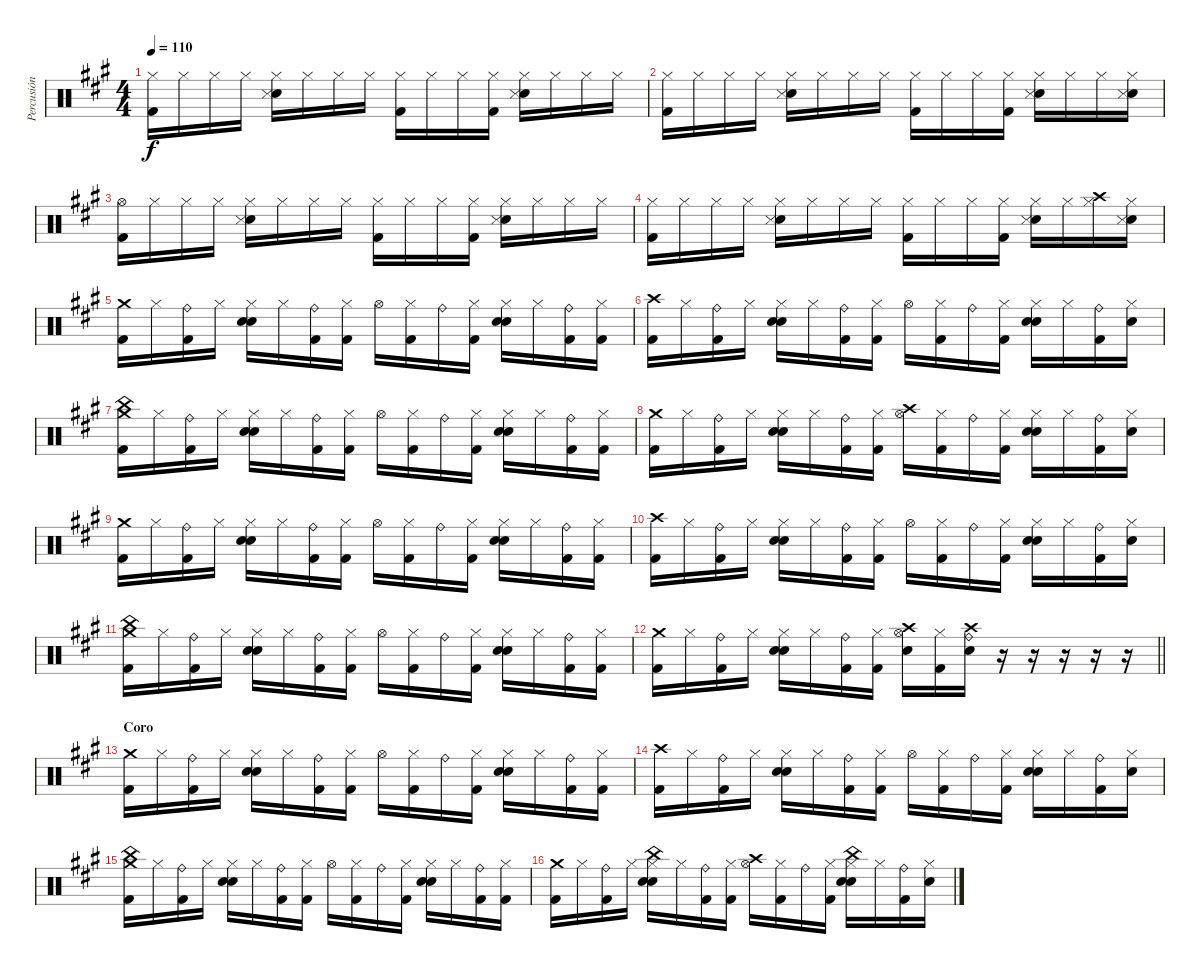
\track ("Percusión" "Percusión") {instrument percussion}
\staff {score}
\articulation defaults
\ts (4 4)
\tempo 110
\clef neutral
\ks a
("Hi-Hat (closed)" "Kick (hit) 2").16{dy f} "Hi-Hat (closed)".16 "Hi-Hat (closed)".16 "Hi-Hat (closed)".16 ("Hi-Hat (closed)" "Hand Clap (hit)" "Snare (side stick) 3").16 "Hi-Hat (closed)".16 "Hi-Hat (closed)".16 "Hi-Hat (closed)".16 ("Hi-Hat (closed)" "Kick (hit) 2").16 "Hi-Hat (closed)".16 "Hi-Hat (closed)".16 ("Hi-Hat (closed)" "Kick (hit) 2").16 ("Hi-Hat (closed)" "Hand Clap (hit)" "Snare (side stick) 3").16 "Hi-Hat (closed)".16 "Hi-Hat (closed)".16 "Hi-Hat (closed)".16 |
("Hi-Hat (closed)" "Kick (hit) 2").16 "Hi-Hat (closed)".16 "Hi-Hat (closed)".16 "Hi-Hat (closed)".16 ("Hi-Hat (closed)" "Hand Clap (hit)" "Snare (side stick) 3").16 "Hi-Hat (closed)".16 "Hi-Hat (closed)".16 "Hi-Hat (closed)".16 ("Hi-Hat (closed)" "Kick (hit) 2").16 "Hi-Hat (closed)".16 "Hi-Hat (closed)".16 ("Hi-Hat (closed)" "Kick (hit) 2").16 ("Hi-Hat (closed)" "Hand Clap (hit)" "Snare (side stick) 3").16 "Hi-Hat (closed)".16 "Hi-Hat (closed)".16 ("Hi-Hat (closed)" "Hand Clap (hit)" "Snare (side stick) 3").16 |
("Hi-Hat (open)" "Kick (hit) 2").16 "Hi-Hat (closed)".16 "Hi-Hat (closed)".16 "Hi-Hat (closed)".16 ("Hi-Hat (closed)" "Hand Clap (hit)" "Snare (side stick) 3").16 "Hi-Hat (closed)".16 "Hi-Hat (closed)".16 "Hi-Hat (closed)".16 ("Hi-Hat (closed)" "Kick (hit) 2").16 "Hi-Hat (closed)".16 "Hi-Hat (closed)".16 ("Hi-Hat (closed)" "Kick (hit) 2").16 ("Hi-Hat (closed)" "Hand Clap (hit)" "Snare (side stick) 3").16 "Hi-Hat (closed)".16 "Hi-Hat (closed)".16 "Hi-Hat (closed)".16 |
("Hi-Hat (closed)" "Kick (hit) 2").16 "Hi-Hat (closed)".16 "Hi-Hat (closed)".16 "Hi-Hat (closed)".16 ("Hi-Hat (closed)" "Hand Clap (hit)" "Snare (side stick) 3").16 "Hi-Hat (closed)".16 "Hi-Hat (closed)".16 "Hi-Hat (closed)".16 ("Hi-Hat (closed)" "Kick (hit) 2").16 "Hi-Hat (closed)".16 "Hi-Hat (closed)".16 ("Hi-Hat (closed)" "Kick (hit) 2").16 ("Hi-Hat (closed)" "Hand Clap (hit)" "Snare (side stick) 3").16 "Hi-Hat (closed)".16 ("Crash high (hit)" "Hi-Hat (closed)").16 ("Hi-Hat (closed)" "Hand Clap (hit)" "Snare (side stick) 3").16 |
("Crash medium (hit)" "Kick (hit) 2").16 "Hi-Hat (closed)".16 ("Ride (bell)" "Kick (hit) 2").16 "Hi-Hat (closed)".16 ("Hi-Hat (closed)" "Hand Clap (hit)" "Electric Snare (hit)").16 "Hi-Hat (closed)".16 ("Ride (bell)" "Kick (hit) 2").16 ("Hi-Hat (closed)" "Kick (hit) 2").16 "Hi-Hat (open)".16 ("Hi-Hat (closed)" "Kick (hit) 2").16 "Ride (bell)".16 ("Hi-Hat (closed)" "Kick (hit) 2").16 ("Hi-Hat (closed)" "Hand Clap (hit)" "Electric Snare (hit)").16 "Hi-Hat (closed)".16 ("Ride (bell)" "Kick (hit) 2").16 ("Hi-Hat (closed)" "Kick (hit) 2").16 |
("Crash high (hit)" "Kick (hit) 2").16 "Hi-Hat (closed)".16 ("Ride (bell)" "Kick (hit) 2").16 "Hi-Hat (closed)".16 ("Hi-Hat (closed)" "Hand Clap (hit)" "Electric Snare (hit)").16 "Hi-Hat (closed)".16 ("Ride (bell)" "Kick (hit) 2").16 ("Hi-Hat (closed)" "Kick (hit) 2").16 "Hi-Hat (open)".16 ("Hi-Hat (closed)" "Kick (hit) 2").16 "Ride (bell)".16 ("Hi-Hat (closed)" "Kick (hit) 2").16 ("Hi-Hat (closed)" "Hand Clap (hit)" "Electric Snare (hit)").16 "Hi-Hat (closed)".16 ("Ride (bell)" "Kick (hit) 2").16 ("Hi-Hat (closed)" "Hand Clap (hit)").16 |
("Crash medium (hit)" "China (hit)" "Kick (hit) 2").16 "Hi-Hat (closed)".16 ("Ride (bell)" "Kick (hit) 2").16 "Hi-Hat (closed)".16 ("Hi-Hat (closed)" "Hand Clap (hit)" "Electric Snare (hit)").16 "Hi-Hat (closed)".16 ("Ride (bell)" "Kick (hit) 2").16 ("Hi-Hat (closed)" "Kick (hit) 2").16 "Hi-Hat (open)".16 ("Hi-Hat (closed)" "Kick (hit) 2").16 "Ride (bell)".16 ("Hi-Hat (closed)" "Kick (hit) 2").16 ("Hi-Hat (closed)" "Hand Clap (hit)" "Electric Snare (hit)").16 "Hi-Hat (closed)".16 ("Ride (bell)" "Kick (hit) 2").16 ("Hi-Hat (closed)" "Kick (hit) 2").16 |
("Crash medium (hit)" "Kick (hit) 2").16 "Hi-Hat (closed)".16 ("Ride (bell)" "Kick (hit) 2").16 "Hi-Hat (closed)".16 ("Hi-Hat (closed)" "Hand Clap (hit)" "Electric Snare (hit)").16 "Hi-Hat (closed)".16 ("Ride (bell)" "Kick (hit) 2").16 ("Hi-Hat (closed)" "Kick (hit) 2").16 ("Crash high (hit)" "Hi-Hat (open)").16 ("Hi-Hat (closed)" "Kick (hit) 2").16 "Ride (bell)".16 ("Hi-Hat (closed)" "Kick (hit) 2").16 ("Hi-Hat (closed)" "Hand Clap (hit)" "Electric Snare (hit)").16 "Hi-Hat (closed)".16 ("Ride (bell)" "Kick (hit) 2").16 ("Hi-Hat (closed)" "Hand Clap (hit)").16 |
("Crash medium (hit)" "Kick (hit) 2").16 "Hi-Hat (closed)".16 ("Ride (bell)" "Kick (hit) 2").16 "Hi-Hat (closed)".16 ("Hi-Hat (closed)" "Hand Clap (hit)" "Electric Snare (hit)").16 "Hi-Hat (closed)".16 ("Ride (bell)" "Kick (hit) 2").16 ("Hi-Hat (closed)" "Kick (hit) 2").16 "Hi-Hat (open)".16 ("Hi-Hat (closed)" "Kick (hit) 2").16 "Ride (bell)".16 ("Hi-Hat (closed)" "Kick (hit) 2").16 ("Hi-Hat (closed)" "Hand Clap (hit)" "Electric Snare (hit)").16 "Hi-Hat (closed)".16 ("Ride (bell)" "Kick (hit) 2").16 ("Hi-Hat (closed)" "Kick (hit) 2").16 |
("Crash high (hit)" "Kick (hit) 2").16 "Hi-Hat (closed)".16 ("Ride (bell)" "Kick (hit) 2").16 "Hi-Hat (closed)".16 ("Hi-Hat (closed)" "Hand Clap (hit)" "Electric Snare (hit)").16 "Hi-Hat (closed)".16 ("Ride (bell)" "Kick (hit) 2").16 ("Hi-Hat (closed)" "Kick (hit) 2").16 "Hi-Hat (open)".16 ("Hi-Hat (closed)" "Kick (hit) 2").16 "Ride (bell)".16 ("Hi-Hat (closed)" "Kick (hit) 2").16 ("Hi-Hat (closed)" "Hand Clap (hit)" "Electric Snare (hit)").16 "Hi-Hat (closed)".16 ("Ride (bell)" "Kick (hit) 2").16 ("Hi-Hat (closed)" "Hand Clap (hit)").16 |
("Crash medium (hit)" "China (hit)" "Kick (hit) 2").16 "Hi-Hat (closed)".16 ("Ride (bell)" "Kick (hit) 2").16 "Hi-Hat (closed)".16 ("Hi-Hat (closed)" "Hand Clap (hit)" "Electric Snare (hit)").16 "Hi-Hat (closed)".16 ("Ride (bell)" "Kick (hit) 2").16 ("Hi-Hat (closed)" "Kick (hit) 2").16 "Hi-Hat (open)".16 ("Hi-Hat (closed)" "Kick (hit) 2").16 "Ride (bell)".16 ("Hi-Hat (closed)" "Kick (hit) 2").16 ("Hi-Hat (closed)" "Hand Clap (hit)" "Electric Snare (hit)").16 "Hi-Hat (closed)".16 ("Ride (bell)" "Kick (hit) 2").16 ("Hi-Hat (closed)" "Kick (hit) 2").16 |
\barLineRight lightlight
("Crash medium (hit)" "Kick (hit) 2").16 "Hi-Hat (closed)".16 ("Ride (bell)" "Kick (hit) 2").16 "Hi-Hat (closed)".16 ("Hi-Hat (closed)" "Hand Clap (hit)" "Electric Snare (hit)").16 "Hi-Hat (closed)".16 ("Ride (bell)" "Kick (hit) 2").16 ("Hi-Hat (closed)" "Kick (hit) 2").16 ("Crash high (hit)" "Hi-Hat (open)" "Hand Clap (hit)").16 ("Hi-Hat (closed)" "Kick (hit) 2").16 ("Crash high (hit)" "Ride (bell)" "Hand Clap (hit)").16 r.16 r.16 r.16 r.16 r.16 |
\section ("" "Coro")
("Crash medium (hit)" "Kick (hit) 2").16 "Hi-Hat (closed)".16 ("Ride (bell)" "Kick (hit) 2").16 "Hi-Hat (closed)".16 ("Hi-Hat (closed)" "Hand Clap (hit)" "Electric Snare (hit)").16 "Hi-Hat (closed)".16 ("Ride (bell)" "Kick (hit) 2").16 ("Hi-Hat (closed)" "Kick (hit) 2").16 "Hi-Hat (open)".16 ("Hi-Hat (closed)" "Kick (hit) 2").16 "Ride (bell)".16 ("Hi-Hat (closed)" "Kick (hit) 2").16 ("Hi-Hat (closed)" "Hand Clap (hit)" "Electric Snare (hit)").16 "Hi-Hat (closed)".16 ("Ride (bell)" "Kick (hit) 2").16 ("Hi-Hat (closed)" "Kick (hit) 2").16 |
("Crash high (hit)" "Kick (hit) 2").16 "Hi-Hat (closed)".16 ("Ride (bell)" "Kick (hit) 2").16 "Hi-Hat (closed)".16 ("Hi-Hat (closed)" "Hand Clap (hit)" "Electric Snare (hit)").16 "Hi-Hat (closed)".16 ("Ride (bell)" "Kick (hit) 2").16 ("Hi-Hat (closed)" "Kick (hit) 2").16 "Hi-Hat (open)".16 ("Hi-Hat (closed)" "Kick (hit) 2").16 "Ride (bell)".16 ("Hi-Hat (closed)" "Kick (hit) 2").16 ("Hi-Hat (closed)" "Hand Clap (hit)" "Electric Snare (hit)").16 "Hi-Hat (closed)".16 ("Ride (bell)" "Kick (hit) 2").16 ("Hi-Hat (closed)" "Hand Clap (hit)").16 |
("Crash medium (hit)" "China (hit)" "Kick (hit) 2").16 "Hi-Hat (closed)".16 ("Ride (bell)" "Kick (hit) 2").16 "Hi-Hat (closed)".16 ("Hi-Hat (closed)" "Hand Clap (hit)" "Electric Snare (hit)").16 "Hi-Hat (closed)".16 ("Ride (bell)" "Kick (hit) 2").16 ("Hi-Hat (closed)" "Kick (hit) 2").16 "Hi-Hat (open)".16 ("Hi-Hat (closed)" "Kick (hit) 2").16 "Ride (bell)".16 ("Hi-Hat (closed)" "Kick (hit) 2").16 ("Hi-Hat (closed)" "Hand Clap (hit)" "Electric Snare (hit)").16 "Hi-Hat (closed)".16 ("Ride (bell)" "Kick (hit) 2").16 ("Hi-Hat (closed)" "Kick (hit) 2").16 |
("Crash medium (hit)" "Kick (hit) 2").16 "Hi-Hat (closed)".16 ("Ride (bell)" "Kick (hit) 2").16 "Hi-Hat (closed)".16 ("China (hit)" "Hi-Hat (closed)" "Hand Clap (hit)" "Electric Snare (hit)").16 "Hi-Hat (closed)".16 ("Ride (bell)" "Kick (hit) 2").16 ("Hi-Hat (closed)" "Kick (hit) 2").16 ("Crash high (hit)" "Hi-Hat (open)").16 ("Hi-Hat (closed)" "Kick (hit) 2").16 "Ride (bell)".16 ("Hi-Hat (closed)" "Kick (hit) 2").16 ("China (hit)" "Hi-Hat (closed)" "Hand Clap (hit)" "Electric Snare (hit)").16 "Hi-Hat (closed)".16 ("Ride (bell)" "Kick (hit) 2").16 ("Hi-Hat (closed)" "Hand Clap (hit)").16
